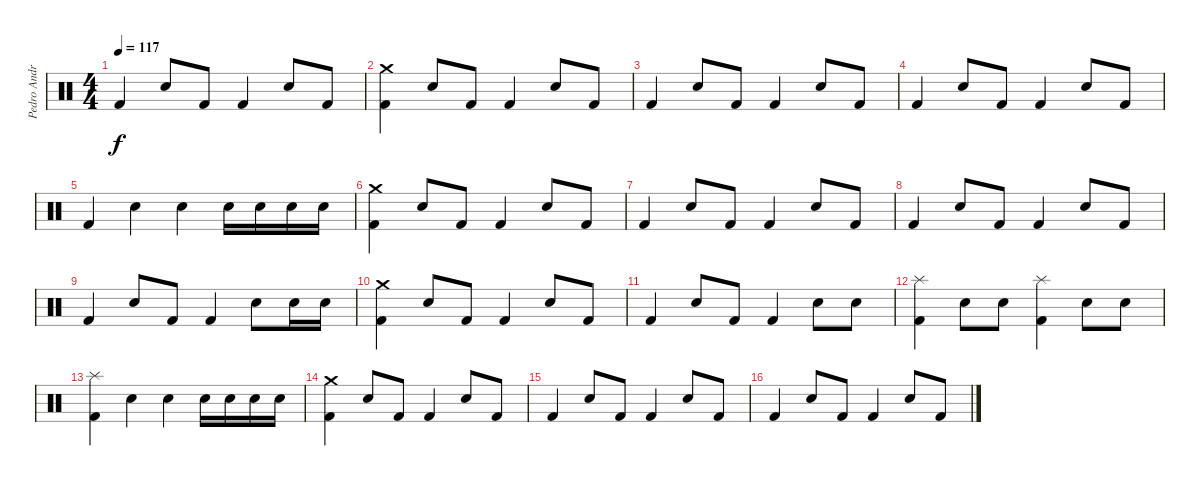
\track ("Pedro Andreu - Batería" "Pedro Andr") {instrument percussion}
\staff {score}
\articulation defaults
\ts (4 4)
\tempo 117
\clef neutral
\ks c "Kick (hit) 2".4{dy f} "Snare (hit) 2".8 "Kick (hit) 2".8 "Kick (hit) 2".4 "Snare (hit) 2".8 "Kick (hit) 2".8
|
("Crash medium (hit)" "Kick (hit) 2").4 "Snare (hit) 2".8 "Kick (hit) 2".8 "Kick (hit) 2".4 "Snare (hit) 2".8 "Kick (hit) 2".8 |
"Kick (hit) 2".4 "Snare (hit) 2".8 "Kick (hit) 2".8 "Kick (hit) 2".4 "Snare (hit) 2".8 "Kick (hit) 2".8 |
"Kick (hit) 2".4 "Snare (hit) 2".8 "Kick (hit) 2".8 "Kick (hit) 2".4 "Snare (hit) 2".8 "Kick (hit) 2".8 |
"Kick (hit) 2".4 "Snare (hit) 2".4 "Snare (hit) 2".4 "Snare (hit) 2".16 "Snare (hit) 2".16 "Snare (hit) 2".16 "Snare (hit) 2".16 |
("Crash medium (hit)" "Kick (hit) 2").4 "Snare (hit) 2".8 "Kick (hit) 2".8 "Kick (hit) 2".4 "Snare (hit) 2".8 "Kick (hit) 2".8 |
"Kick (hit) 2".4 "Snare (hit) 2".8 "Kick (hit) 2".8 "Kick (hit) 2".4 "Snare (hit) 2".8 "Kick (hit) 2".8 |
"Kick (hit) 2".4 "Snare (hit) 2".8 "Kick (hit) 2".8 "Kick (hit) 2".4 "Snare (hit) 2".8 "Kick (hit) 2".8 |
"Kick (hit) 2".4 "Snare (hit) 2".8 "Kick (hit) 2".8 "Kick (hit) 2".4 "Snare (hit) 2".8 "Snare (hit) 2".16 "Snare (hit) 2".16 |
("Crash medium (hit)" "Kick (hit) 2").4 "Snare (hit) 2".8 "Kick (hit) 2".8 "Kick (hit) 2".4 "Snare (hit) 2".8 "Kick (hit) 2".8 |
"Kick (hit) 2".4 "Snare (hit) 2".8 "Kick (hit) 2".8 "Kick (hit) 2".4 "Snare (hit) 2".8 "Snare (hit) 2".8 |
("Splash (hit)" "Kick (hit) 2").4 "Snare (hit) 2".8 "Snare (hit) 2".8 ("Splash (hit)" "Kick (hit) 2").4 "Snare (hit) 2".8 "Snare (hit) 2".8 |
("Splash (hit)" "Kick (hit) 2").4 "Snare (hit) 2".4 "Snare (hit) 2".4 "Snare (hit) 2".16 "Snare (hit) 2".16 "Snare (hit) 2".16 "Snare (hit) 2".16 |
("Crash medium (hit)" "Kick (hit) 2").4 "Snare (hit) 2".8 "Kick (hit) 2".8 "Kick (hit) 2".4 "Snare (hit) 2".8 "Kick (hit) 2".8 |
"Kick (hit) 2".4 "Snare (hit) 2".8 "Kick (hit) 2".8 "Kick (hit) 2".4 "Snare (hit) 2".8 "Kick (hit) 2".8 |
"Kick (hit) 2".4 "Snare (hit) 2".8 "Kick (hit) 2".8 "Kick (hit) 2".4 "Snare (hit) 2".8 "Kick (hit) 2".8
